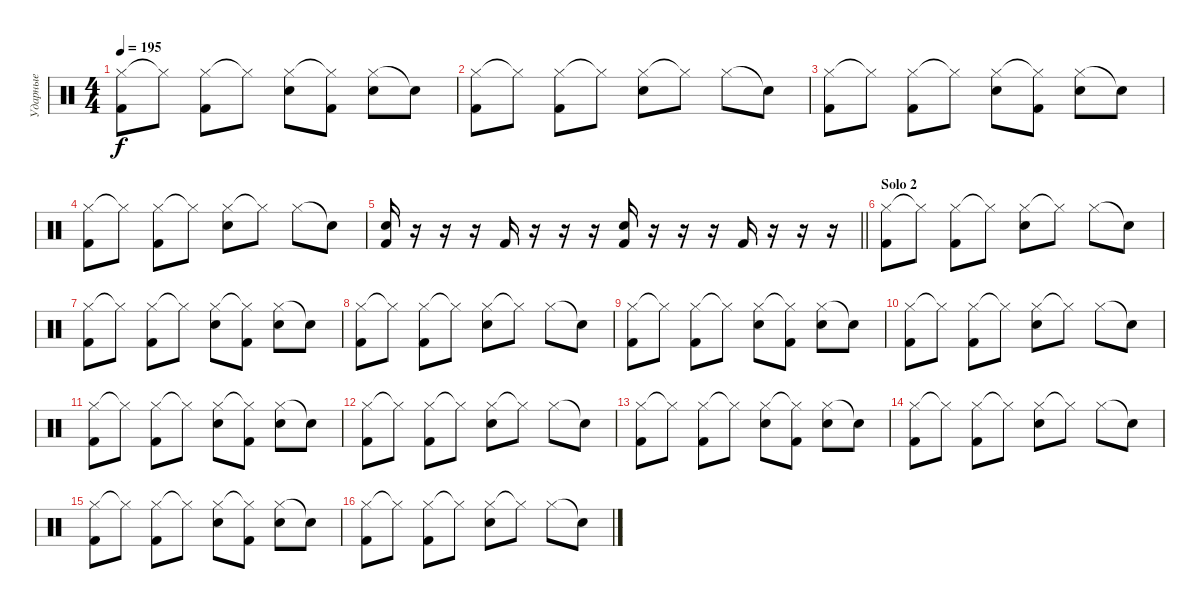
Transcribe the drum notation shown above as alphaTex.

\track ("Ударные" "Ударные") {instrument percussion}
\staff {score}
\articulation defaults
\ts (4 4)
\tempo 195
\clef neutral
\ks c
("Hi-Hat (closed)" "Kick (hit) 2").8{dy f} "Hi-Hat (closed)"{t}.8 ("Hi-Hat (closed)" "Kick (hit) 2").8 "Hi-Hat (closed)"{t}.8 ("Hi-Hat (closed)" "Snare (hit) 2").8 ("Hi-Hat (closed)"{t} "Kick (hit) 2").8 ("Hi-Hat (closed)" "Snare (hit) 2").8 "Snare (hit)"{t}.8 |
("Hi-Hat (closed)" "Kick (hit) 2").8 "Hi-Hat (closed)"{t}.8 ("Hi-Hat (closed)" "Kick (hit) 2").8 "Hi-Hat (closed)"{t}.8 ("Hi-Hat (closed)" "Snare (hit) 2").8 "Hi-Hat (closed)"{t}.8 "Hi-Hat (closed)".8 "Snare (hit)"{t}.8 |
("Hi-Hat (closed)" "Kick (hit) 2").8 "Hi-Hat (closed)"{t}.8 ("Hi-Hat (closed)" "Kick (hit) 2").8 "Hi-Hat (closed)"{t}.8 ("Hi-Hat (closed)" "Snare (hit) 2").8 ("Hi-Hat (closed)"{t} "Kick (hit) 2").8 ("Hi-Hat (closed)" "Snare (hit) 2").8 "Snare (hit)"{t}.8 |
("Hi-Hat (closed)" "Kick (hit) 2").8 "Hi-Hat (closed)"{t}.8 ("Hi-Hat (closed)" "Kick (hit) 2").8 "Hi-Hat (closed)"{t}.8 ("Hi-Hat (closed)" "Snare (hit) 2").8 "Hi-Hat (closed)"{t}.8 "Hi-Hat (closed)".8 "Snare (hit)"{t}.8 |
\barLineRight lightlight
("Snare (hit) 2" "Kick (hit) 2").16 r.16 r.16 r.16 "Kick (hit) 2".16 r.16 r.16 r.16 ("Snare (hit) 2" "Kick (hit) 2").16 r.16 r.16 r.16 "Kick (hit) 2".16 r.16 r.16 r.16 |
\section ("" "Solo 2")
("Hi-Hat (closed)" "Kick (hit) 2").8 "Hi-Hat (closed)"{t}.8 ("Hi-Hat (closed)" "Kick (hit) 2").8 "Hi-Hat (closed)"{t}.8 ("Hi-Hat (closed)" "Snare (hit) 2").8 "Hi-Hat (closed)"{t}.8 "Hi-Hat (closed)".8 "Snare (hit)"{t}.8 |
("Hi-Hat (closed)" "Kick (hit) 2").8 "Hi-Hat (closed)"{t}.8 ("Hi-Hat (closed)" "Kick (hit) 2").8 "Hi-Hat (closed)"{t}.8 ("Hi-Hat (closed)" "Snare (hit) 2").8 ("Hi-Hat (closed)"{t} "Kick (hit) 2").8 ("Hi-Hat (closed)" "Snare (hit) 2").8 "Snare (hit)"{t}.8 |
("Hi-Hat (closed)" "Kick (hit) 2").8 "Hi-Hat (closed)"{t}.8 ("Hi-Hat (closed)" "Kick (hit) 2").8 "Hi-Hat (closed)"{t}.8 ("Hi-Hat (closed)" "Snare (hit) 2").8 "Hi-Hat (closed)"{t}.8 "Hi-Hat (closed)".8 "Snare (hit)"{t}.8 |
("Hi-Hat (closed)" "Kick (hit) 2").8 "Hi-Hat (closed)"{t}.8 ("Hi-Hat (closed)" "Kick (hit) 2").8 "Hi-Hat (closed)"{t}.8 ("Hi-Hat (closed)" "Snare (hit) 2").8 ("Hi-Hat (closed)"{t} "Kick (hit) 2").8 ("Hi-Hat (closed)" "Snare (hit) 2").8 "Snare (hit)"{t}.8 |
("Hi-Hat (closed)" "Kick (hit) 2").8 "Hi-Hat (closed)"{t}.8 ("Hi-Hat (closed)" "Kick (hit) 2").8 "Hi-Hat (closed)"{t}.8 ("Hi-Hat (closed)" "Snare (hit) 2").8 "Hi-Hat (closed)"{t}.8 "Hi-Hat (closed)".8 "Snare (hit)"{t}.8 |
("Hi-Hat (closed)" "Kick (hit) 2").8 "Hi-Hat (closed)"{t}.8 ("Hi-Hat (closed)" "Kick (hit) 2").8 "Hi-Hat (closed)"{t}.8 ("Hi-Hat (closed)" "Snare (hit) 2").8 ("Hi-Hat (closed)"{t} "Kick (hit) 2").8 ("Hi-Hat (closed)" "Snare (hit) 2").8 "Snare (hit)"{t}.8 |
("Hi-Hat (closed)" "Kick (hit) 2").8 "Hi-Hat (closed)"{t}.8 ("Hi-Hat (closed)" "Kick (hit) 2").8 "Hi-Hat (closed)"{t}.8 ("Hi-Hat (closed)" "Snare (hit) 2").8 "Hi-Hat (closed)"{t}.8 "Hi-Hat (closed)".8 "Snare (hit)"{t}.8 |
("Hi-Hat (closed)" "Kick (hit) 2").8 "Hi-Hat (closed)"{t}.8 ("Hi-Hat (closed)" "Kick (hit) 2").8 "Hi-Hat (closed)"{t}.8 ("Hi-Hat (closed)" "Snare (hit) 2").8 ("Hi-Hat (closed)"{t} "Kick (hit) 2").8 ("Hi-Hat (closed)" "Snare (hit) 2").8 "Snare (hit)"{t}.8 |
("Hi-Hat (closed)" "Kick (hit) 2").8 "Hi-Hat (closed)"{t}.8 ("Hi-Hat (closed)" "Kick (hit) 2").8 "Hi-Hat (closed)"{t}.8 ("Hi-Hat (closed)" "Snare (hit) 2").8 "Hi-Hat (closed)"{t}.8 "Hi-Hat (closed)".8 "Snare (hit)"{t}.8 |
("Hi-Hat (closed)" "Kick (hit) 2").8 "Hi-Hat (closed)"{t}.8 ("Hi-Hat (closed)" "Kick (hit) 2").8 "Hi-Hat (closed)"{t}.8 ("Hi-Hat (closed)" "Snare (hit) 2").8 ("Hi-Hat (closed)"{t} "Kick (hit) 2").8 ("Hi-Hat (closed)" "Snare (hit) 2").8 "Snare (hit)"{t}.8 |
("Hi-Hat (closed)" "Kick (hit) 2").8 "Hi-Hat (closed)"{t}.8 ("Hi-Hat (closed)" "Kick (hit) 2").8 "Hi-Hat (closed)"{t}.8 ("Hi-Hat (closed)" "Snare (hit) 2").8 "Hi-Hat (closed)"{t}.8 "Hi-Hat (closed)".8 "Snare (hit)"{t}.8
